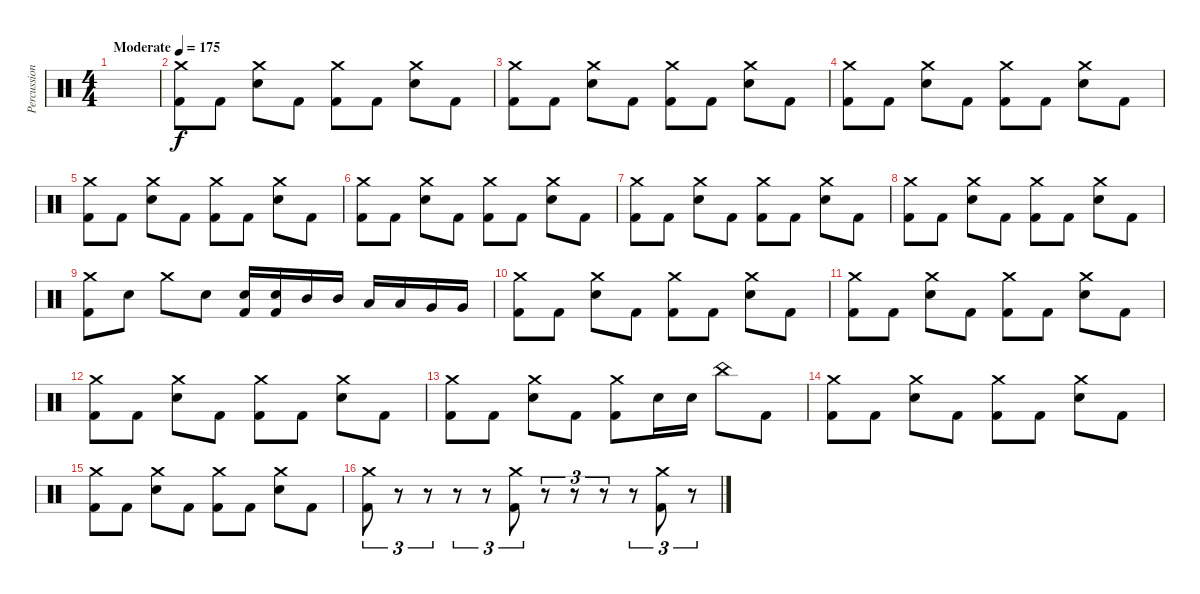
\track ("Percussion" "Percussion") {instrument percussion}
\staff {score}
\articulation defaults
\ts (4 4)
\tempo (175 "Moderate")
\clef neutral
\ks c
|
("Crash medium (hit)" "Kick (hit) 2").8 "Kick (hit) 2".8 ("Crash medium (hit)" "Electric Snare (hit)").8 "Kick (hit) 2".8 ("Crash medium (hit)" "Kick (hit) 2").8 "Kick (hit) 2".8 ("Crash medium (hit)" "Electric Snare (hit)").8 "Kick (hit) 2".8 |
("Crash medium (hit)" "Kick (hit) 2").8 "Kick (hit) 2".8 ("Crash medium (hit)" "Electric Snare (hit)").8 "Kick (hit) 2".8 ("Crash medium (hit)" "Kick (hit) 2").8 "Kick (hit) 2".8 ("Crash medium (hit)" "Electric Snare (hit)").8 "Kick (hit) 2".8 |
("Crash medium (hit)" "Kick (hit) 2").8 "Kick (hit) 2".8 ("Crash medium (hit)" "Electric Snare (hit)").8 "Kick (hit) 2".8 ("Crash medium (hit)" "Kick (hit) 2").8 "Kick (hit) 2".8 ("Crash medium (hit)" "Electric Snare (hit)").8 "Kick (hit) 2".8 |
("Crash medium (hit)" "Kick (hit) 2").8 "Kick (hit) 2".8 ("Crash medium (hit)" "Electric Snare (hit)").8 "Kick (hit) 2".8 ("Crash medium (hit)" "Kick (hit) 2").8 "Kick (hit) 2".8 ("Crash medium (hit)" "Electric Snare (hit)").8 "Kick (hit) 2".8 |
("Crash medium (hit)" "Kick (hit) 2").8 "Kick (hit) 2".8 ("Crash medium (hit)" "Electric Snare (hit)").8 "Kick (hit) 2".8 ("Crash medium (hit)" "Kick (hit) 2").8 "Kick (hit) 2".8 ("Crash medium (hit)" "Electric Snare (hit)").8 "Kick (hit) 2".8 |
("Crash medium (hit)" "Kick (hit) 2").8 "Kick (hit) 2".8 ("Crash medium (hit)" "Electric Snare (hit)").8 "Kick (hit) 2".8 ("Crash medium (hit)" "Kick (hit) 2").8 "Kick (hit) 2".8 ("Crash medium (hit)" "Electric Snare (hit)").8 "Kick (hit) 2".8 |
("Crash medium (hit)" "Kick (hit) 2").8 "Kick (hit) 2".8 ("Crash medium (hit)" "Electric Snare (hit)").8 "Kick (hit) 2".8 ("Crash medium (hit)" "Kick (hit) 2").8 "Kick (hit) 2".8 ("Crash medium (hit)" "Electric Snare (hit)").8 "Kick (hit) 2".8 |
("Crash medium (hit)" "Kick (hit) 2").8 "Electric Snare (hit)".8 "Crash medium (hit)".8 "Electric Snare (hit)".8 ("Electric Snare (hit)" "Kick (hit) 2").16 ("Electric Snare (hit)" "Kick (hit) 2").16 "Mid Tom (hit)".16 "Mid Tom (hit)".16 "Low Tom (hit)".16 "Low Tom (hit)".16 "Very Low Tom (hit)".16 "Very Low Tom (hit)".16 |
("Crash medium (hit)" "Kick (hit) 2").8 "Kick (hit) 2".8 ("Crash medium (hit)" "Electric Snare (hit)").8 "Kick (hit) 2".8 ("Crash medium (hit)" "Kick (hit) 2").8 "Kick (hit) 2".8 ("Crash medium (hit)" "Electric Snare (hit)").8 "Kick (hit) 2".8 |
("Crash medium (hit)" "Kick (hit) 2").8 "Kick (hit) 2".8 ("Crash medium (hit)" "Electric Snare (hit)").8 "Kick (hit) 2".8 ("Crash medium (hit)" "Kick (hit) 2").8 "Kick (hit) 2".8 ("Crash medium (hit)" "Electric Snare (hit)").8 "Kick (hit) 2".8 |
("Crash medium (hit)" "Kick (hit) 2").8 "Kick (hit) 2".8 ("Crash medium (hit)" "Electric Snare (hit)").8 "Kick (hit) 2".8 ("Crash medium (hit)" "Kick (hit) 2").8 "Kick (hit) 2".8 ("Crash medium (hit)" "Electric Snare (hit)").8 "Kick (hit) 2".8 |
("Crash medium (hit)" "Kick (hit) 2").8 "Kick (hit) 2".8 ("Crash medium (hit)" "Electric Snare (hit)").8 "Kick (hit) 2".8 ("Crash medium (hit)" "Kick (hit) 2").8 "Electric Snare (hit)".16 "Electric Snare (hit)".16 "China (hit)".8 "Kick (hit) 2".8 |
("Crash medium (hit)" "Kick (hit) 2").8 "Kick (hit) 2".8 ("Crash medium (hit)" "Electric Snare (hit)").8 "Kick (hit) 2".8 ("Crash medium (hit)" "Kick (hit) 2").8 "Kick (hit) 2".8 ("Crash medium (hit)" "Electric Snare (hit)").8 "Kick (hit) 2".8 |
("Crash medium (hit)" "Kick (hit) 2").8 "Kick (hit) 2".8 ("Crash medium (hit)" "Electric Snare (hit)").8 "Kick (hit) 2".8 ("Crash medium (hit)" "Kick (hit) 2").8 "Kick (hit) 2".8 ("Crash medium (hit)" "Electric Snare (hit)").8 "Kick (hit) 2".8 |
("Crash medium (hit)" "Kick (hit) 2").8{tu (3 2)} r.8{tu (3 2)} r.8{tu (3 2)} r.8{tu (3 2)} r.8{tu (3 2)} ("Crash medium (hit)" "Kick (hit) 2").8{tu (3 2)} r.8{tu (3 2)} r.8{tu (3 2)} r.8{tu (3 2)} r.8{tu (3 2)} ("Crash medium (hit)" "Kick (hit) 2").8{tu (3 2)} r.8{tu (3 2)}
